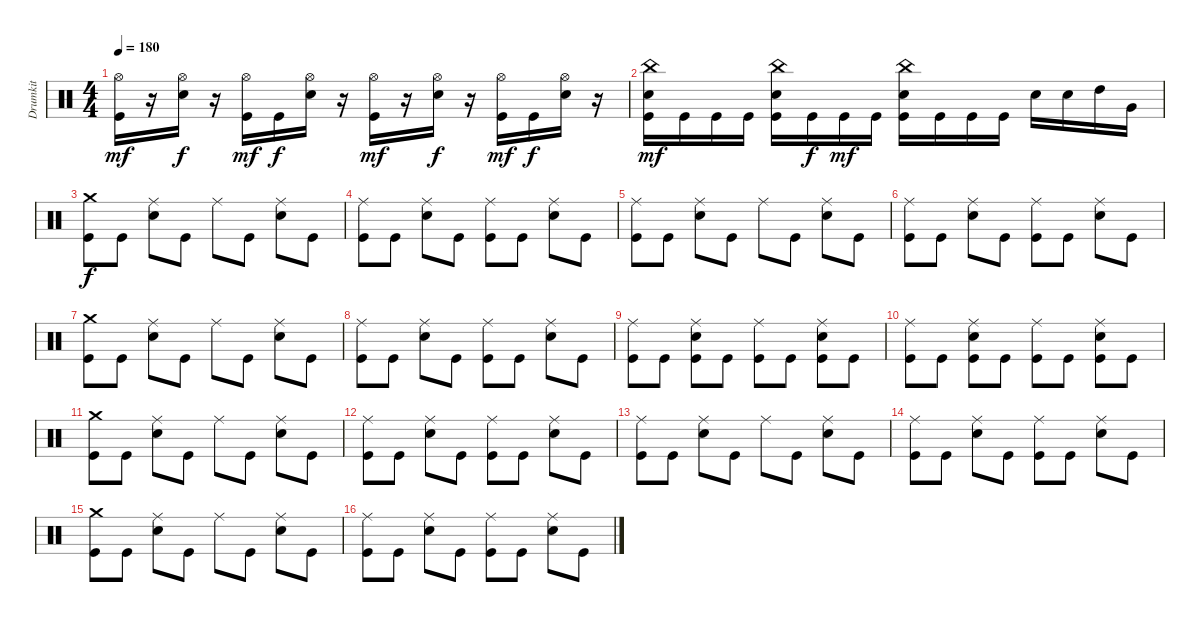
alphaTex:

\track ("Drumkit" "Drumkit") {instrument percussion}
\staff {score}
\articulation defaults
\ts (4 4)
\tempo 180
\clef neutral
\ks c
("Hi-Hat (open)" "Kick (hit)").16{dy mf} r.16 ("Hi-Hat (open)" "Snare (hit) 2").16{dy f} r.16 ("Hi-Hat (open)" "Kick (hit)").16{dy mf} "Kick (hit)".16{dy f} ("Hi-Hat (open)" "Snare (hit) 2").16 r.16 ("Hi-Hat (open)" "Kick (hit)").16{dy mf} r.16 ("Hi-Hat (open)" "Snare (hit) 2").16{dy f} r.16 ("Hi-Hat (open)" "Kick (hit)").16{dy mf} "Kick (hit)".16{dy f} ("Hi-Hat (open)" "Snare (hit) 2").16 r.16 |
("China (hit)" "Snare (hit) 2" "Kick (hit)").16{dy mf} "Kick (hit)".16 "Kick (hit)".16 "Kick (hit)".16 ("China (hit)" "Snare (hit) 2" "Kick (hit)").16 "Kick (hit)".16{dy f} "Kick (hit)".16{dy mf} "Kick (hit)".16 ("China (hit)" "Snare (hit) 2" "Kick (hit)").16 "Kick (hit)".16 "Kick (hit)".16 "Kick (hit)".16 "Snare (hit) 2".16 "Snare (hit) 2".16 "High Tom (hit)".16 "Very Low Tom (hit)".16 |
("Crash medium (hit)" "Kick (hit)").8{dy f} "Kick (hit)".8 ("Ride (middle)" "Snare (hit) 2").8 "Kick (hit)".8 "Ride (middle)".8 "Kick (hit)".8 ("Ride (middle)" "Snare (hit) 2").8 "Kick (hit)".8 |
("Ride (middle)" "Kick (hit)").8 "Kick (hit)".8 ("Ride (middle)" "Snare (hit) 2").8 "Kick (hit)".8 ("Ride (middle)" "Kick (hit)").8 "Kick (hit)".8 ("Ride (middle)" "Snare (hit) 2").8 "Kick (hit)".8 |
("Ride (middle)" "Kick (hit)").8 "Kick (hit)".8 ("Ride (middle)" "Snare (hit) 2").8 "Kick (hit)".8 "Ride (middle)".8 "Kick (hit)".8 ("Snare (hit) 2" "Ride (middle)").8 "Kick (hit)".8 |
("Ride (middle)" "Kick (hit)").8 "Kick (hit)".8 ("Ride (middle)" "Snare (hit) 2").8 "Kick (hit)".8 ("Ride (middle)" "Kick (hit)").8 "Kick (hit)".8 ("Ride (middle)" "Snare (hit) 2").8 "Kick (hit)".8 |
("Crash medium (hit)" "Kick (hit)").8 "Kick (hit)".8 ("Ride (middle)" "Snare (hit) 2").8 "Kick (hit)".8 "Ride (middle)".8 "Kick (hit)".8 ("Ride (middle)" "Snare (hit) 2").8 "Kick (hit)".8 |
("Ride (middle)" "Kick (hit)").8 "Kick (hit)".8 ("Ride (middle)" "Snare (hit) 2").8 "Kick (hit)".8 ("Ride (middle)" "Kick (hit)").8 "Kick (hit)".8 ("Ride (middle)" "Snare (hit) 2").8 "Kick (hit)".8 |
("Ride (middle)" "Kick (hit)").8 "Kick (hit)".8 ("Ride (middle)" "Snare (hit) 2" "Kick (hit)").8 "Kick (hit)".8 ("Ride (middle)" "Kick (hit)").8 "Kick (hit)".8 ("Ride (middle)" "Snare (hit) 2" "Kick (hit)").8 "Kick (hit)".8 |
("Ride (middle)" "Kick (hit)").8 "Kick (hit)".8 ("Ride (middle)" "Snare (hit) 2" "Kick (hit)").8 "Kick (hit)".8 ("Ride (middle)" "Kick (hit)").8 "Kick (hit)".8 ("Ride (middle)" "Snare (hit) 2" "Kick (hit)").8 "Kick (hit)".8 |
("Crash medium (hit)" "Kick (hit)").8 "Kick (hit)".8 ("Ride (middle)" "Snare (hit) 2").8 "Kick (hit)".8 "Ride (middle)".8 "Kick (hit)".8 ("Ride (middle)" "Snare (hit) 2").8 "Kick (hit)".8 |
("Ride (middle)" "Kick (hit)").8 "Kick (hit)".8 ("Ride (middle)" "Snare (hit) 2").8 "Kick (hit)".8 ("Ride (middle)" "Kick (hit)").8 "Kick (hit)".8 ("Ride (middle)" "Snare (hit) 2").8 "Kick (hit)".8 |
("Ride (middle)" "Kick (hit)").8 "Kick (hit)".8 ("Ride (middle)" "Snare (hit) 2").8 "Kick (hit)".8 "Ride (middle)".8 "Kick (hit)".8 ("Ride (middle)" "Snare (hit) 2").8 "Kick (hit)".8 |
("Ride (middle)" "Kick (hit)").8 "Kick (hit)".8 ("Ride (middle)" "Snare (hit) 2").8 "Kick (hit)".8 ("Ride (middle)" "Kick (hit)").8 "Kick (hit)".8 ("Ride (middle)" "Snare (hit) 2").8 "Kick (hit)".8 |
("Crash medium (hit)" "Kick (hit)").8 "Kick (hit)".8 ("Ride (middle)" "Snare (hit) 2").8 "Kick (hit)".8 "Ride (middle)".8 "Kick (hit)".8 ("Ride (middle)" "Snare (hit) 2").8 "Kick (hit)".8 |
("Ride (middle)" "Kick (hit)").8 "Kick (hit)".8 ("Ride (middle)" "Snare (hit) 2").8 "Kick (hit)".8 ("Ride (middle)" "Kick (hit)").8 "Kick (hit)".8 ("Ride (middle)" "Snare (hit) 2").8 "Kick (hit)".8
